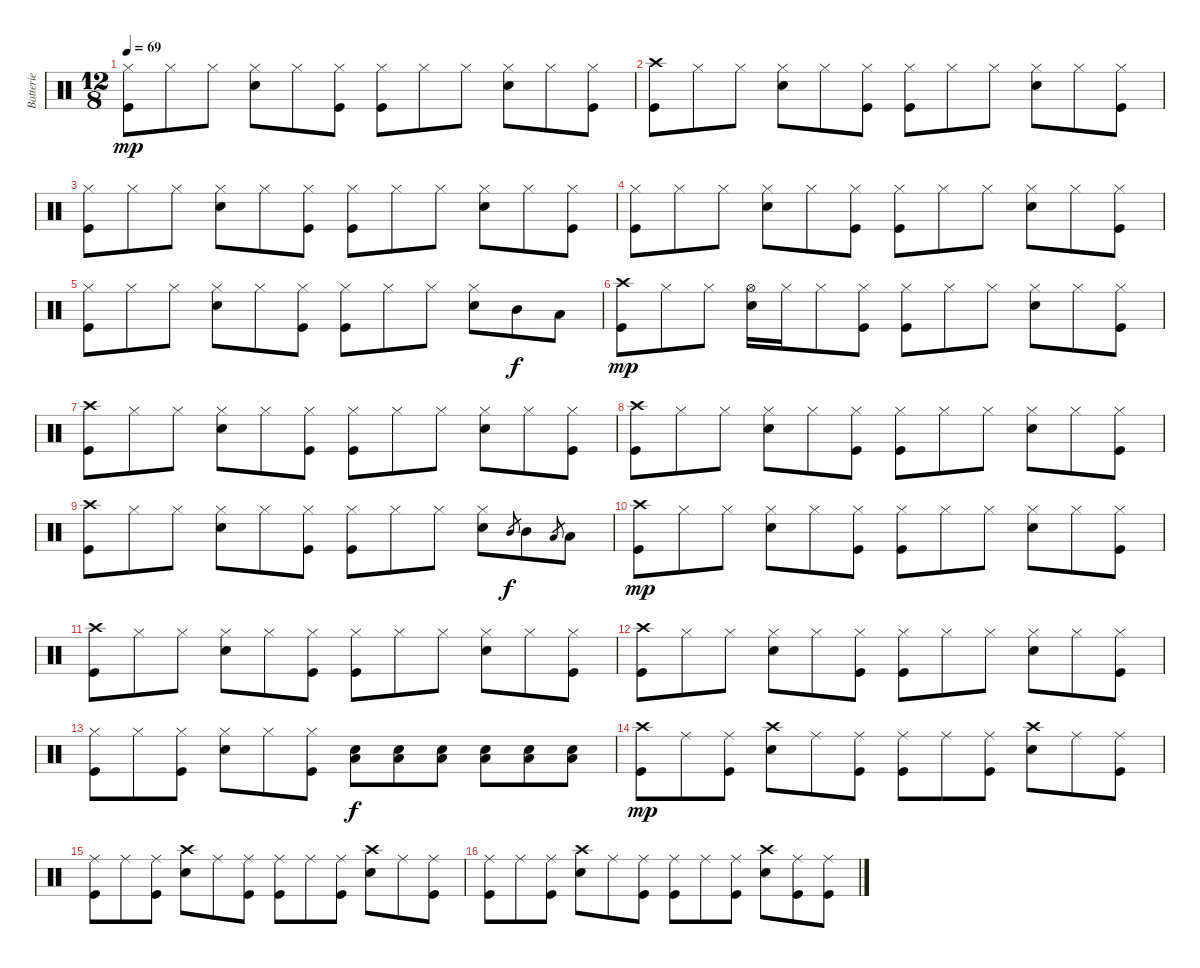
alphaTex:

\track ("Batterie" "Batterie") {instrument percussion}
\staff {score}
\articulation defaults
\ts (12 8)
\tempo 69
\clef neutral
\ks c
("Hi-Hat (closed)" "Kick (hit)").8{dy mp} "Hi-Hat (closed)".8 "Hi-Hat (closed)".8 ("Hi-Hat (closed)" "Snare (hit) 2").8 "Hi-Hat (closed)".8 ("Hi-Hat (closed)" "Kick (hit)").8 ("Hi-Hat (closed)" "Kick (hit)").8 "Hi-Hat (closed)".8 "Hi-Hat (closed)".8 ("Hi-Hat (closed)" "Snare (hit) 2").8 "Hi-Hat (closed)".8 ("Hi-Hat (closed)" "Kick (hit)").8 |
("Crash high (hit)" "Kick (hit)").8 "Hi-Hat (closed)".8 "Hi-Hat (closed)".8 ("Hi-Hat (closed)" "Snare (hit) 2").8 "Hi-Hat (closed)".8 ("Hi-Hat (closed)" "Kick (hit)").8 ("Hi-Hat (closed)" "Kick (hit)").8 "Hi-Hat (closed)".8 "Hi-Hat (closed)".8 ("Hi-Hat (closed)" "Snare (hit) 2").8 "Hi-Hat (closed)".8 ("Hi-Hat (closed)" "Kick (hit)").8 |
("Hi-Hat (closed)" "Kick (hit)").8 "Hi-Hat (closed)".8 "Hi-Hat (closed)".8 ("Hi-Hat (closed)" "Snare (hit) 2").8 "Hi-Hat (closed)".8 ("Hi-Hat (closed)" "Kick (hit)").8 ("Hi-Hat (closed)" "Kick (hit)").8 "Hi-Hat (closed)".8 "Hi-Hat (closed)".8 ("Hi-Hat (closed)" "Snare (hit) 2").8 "Hi-Hat (closed)".8 ("Hi-Hat (closed)" "Kick (hit)").8 |
("Hi-Hat (closed)" "Kick (hit)").8 "Hi-Hat (closed)".8 "Hi-Hat (closed)".8 ("Hi-Hat (closed)" "Snare (hit) 2").8 "Hi-Hat (closed)".8 ("Hi-Hat (closed)" "Kick (hit)").8 ("Hi-Hat (closed)" "Kick (hit)").8 "Hi-Hat (closed)".8 "Hi-Hat (closed)".8 ("Hi-Hat (closed)" "Snare (hit) 2").8 "Hi-Hat (closed)".8 ("Hi-Hat (closed)" "Kick (hit)").8 |
("Hi-Hat (closed)" "Kick (hit)").8 "Hi-Hat (closed)".8 "Hi-Hat (closed)".8 ("Hi-Hat (closed)" "Snare (hit) 2").8 "Hi-Hat (closed)".8 ("Hi-Hat (closed)" "Kick (hit)").8 ("Hi-Hat (closed)" "Kick (hit)").8 "Hi-Hat (closed)".8 "Hi-Hat (closed)".8 ("Hi-Hat (closed)" "Snare (hit) 2").8 "Mid Tom (hit)".8{dy f} "Low Tom (hit)".8 |
("Crash high (hit)" "Kick (hit)").8{dy mp} "Hi-Hat (closed)".8 "Hi-Hat (closed)".8 ("Hi-Hat (open)" "Snare (hit) 2").16 "Hi-Hat (closed)".16 "Hi-Hat (closed)".8 ("Hi-Hat (closed)" "Kick (hit)").8 ("Hi-Hat (closed)" "Kick (hit)").8 "Hi-Hat (closed)".8 "Hi-Hat (closed)".8 ("Hi-Hat (closed)" "Snare (hit) 2").8 "Hi-Hat (closed)".8 ("Hi-Hat (closed)" "Kick (hit)").8 |
("Crash high (hit)" "Kick (hit)").8 "Hi-Hat (closed)".8 "Hi-Hat (closed)".8 ("Hi-Hat (closed)" "Snare (hit) 2").8 "Hi-Hat (closed)".8 ("Hi-Hat (closed)" "Kick (hit)").8 ("Hi-Hat (closed)" "Kick (hit)").8 "Hi-Hat (closed)".8 "Hi-Hat (closed)".8 ("Hi-Hat (closed)" "Snare (hit) 2").8 "Hi-Hat (closed)".8 ("Hi-Hat (closed)" "Kick (hit)").8 |
("Crash high (hit)" "Kick (hit)").8 "Hi-Hat (closed)".8 "Hi-Hat (closed)".8 ("Hi-Hat (closed)" "Snare (hit) 2").8 "Hi-Hat (closed)".8 ("Hi-Hat (closed)" "Kick (hit)").8 ("Hi-Hat (closed)" "Kick (hit)").8 "Hi-Hat (closed)".8 "Hi-Hat (closed)".8 ("Hi-Hat (closed)" "Snare (hit) 2").8 "Hi-Hat (closed)".8 ("Hi-Hat (closed)" "Kick (hit)").8 |
("Crash high (hit)" "Kick (hit)").8 "Hi-Hat (closed)".8 "Hi-Hat (closed)".8 ("Hi-Hat (closed)" "Snare (hit) 2").8 "Hi-Hat (closed)".8 ("Hi-Hat (closed)" "Kick (hit)").8 ("Hi-Hat (closed)" "Kick (hit)").8 "Hi-Hat (closed)".8 "Hi-Hat (closed)".8 ("Hi-Hat (closed)" "Snare (hit) 2").8 "Mid Tom (hit)".8{gr dy f} "Mid Tom (hit)".8 "Low Tom (hit)".8{gr} "Low Tom (hit)".8 |
("Crash high (hit)" "Kick (hit)").8{dy mp} "Hi-Hat (closed)".8 "Hi-Hat (closed)".8 ("Hi-Hat (closed)" "Snare (hit) 2").8 "Hi-Hat (closed)".8 ("Hi-Hat (closed)" "Kick (hit)").8 ("Hi-Hat (closed)" "Kick (hit)").8 "Hi-Hat (closed)".8 "Hi-Hat (closed)".8 ("Hi-Hat (closed)" "Snare (hit) 2").8 "Hi-Hat (closed)".8 ("Hi-Hat (closed)" "Kick (hit)").8 |
("Crash high (hit)" "Kick (hit)").8 "Hi-Hat (closed)".8 "Hi-Hat (closed)".8 ("Hi-Hat (closed)" "Snare (hit) 2").8 "Hi-Hat (closed)".8 ("Hi-Hat (closed)" "Kick (hit)").8 ("Hi-Hat (closed)" "Kick (hit)").8 "Hi-Hat (closed)".8 "Hi-Hat (closed)".8 ("Hi-Hat (closed)" "Snare (hit) 2").8 "Hi-Hat (closed)".8 ("Hi-Hat (closed)" "Kick (hit)").8 |
("Crash high (hit)" "Kick (hit)").8 "Hi-Hat (closed)".8 "Hi-Hat (closed)".8 ("Hi-Hat (closed)" "Snare (hit) 2").8 "Hi-Hat (closed)".8 ("Hi-Hat (closed)" "Kick (hit)").8 ("Hi-Hat (closed)" "Kick (hit)").8 "Hi-Hat (closed)".8 "Hi-Hat (closed)".8 ("Hi-Hat (closed)" "Snare (hit) 2").8 "Hi-Hat (closed)".8 ("Hi-Hat (closed)" "Kick (hit)").8 |
("Hi-Hat (closed)" "Kick (hit)").8 "Hi-Hat (closed)".8 ("Hi-Hat (closed)" "Kick (hit)").8 ("Hi-Hat (closed)" "Snare (hit) 2").8 "Hi-Hat (closed)".8 ("Hi-Hat (closed)" "Kick (hit)").8 ("Snare (hit) 2" "Low Tom (hit)").8{dy f} ("Snare (hit) 2" "Low Tom (hit)").8 ("Snare (hit) 2" "Low Tom (hit)").8 ("Snare (hit) 2" "Low Tom (hit)").8 ("Snare (hit) 2" "Low Tom (hit)").8 ("Snare (hit) 2" "Low Tom (hit)").8 |
("Crash high (hit)" "Kick (hit)").8{dy mp} "Ride (middle)".8 ("Ride (middle)" "Kick (hit)").8 ("Crash high (hit)" "Snare (hit) 2").8 "Ride (middle)".8 ("Ride (middle)" "Kick (hit)").8 ("Ride (middle)" "Kick (hit)").8 "Ride (middle)".8 ("Ride (middle)" "Kick (hit)").8 ("Crash high (hit)" "Snare (hit) 2").8 "Ride (middle)".8 ("Ride (middle)" "Kick (hit)").8 |
("Ride (middle)" "Kick (hit)").8 "Ride (middle)".8 ("Ride (middle)" "Kick (hit)").8 ("Crash high (hit)" "Snare (hit) 2").8 "Ride (middle)".8 ("Ride (middle)" "Kick (hit)").8 ("Ride (middle)" "Kick (hit)").8 "Ride (middle)".8 ("Ride (middle)" "Kick (hit)").8 ("Crash high (hit)" "Snare (hit) 2").8 "Ride (middle)".8 ("Ride (middle)" "Kick (hit)").8 |
("Ride (middle)" "Kick (hit)").8 "Ride (middle)".8 ("Ride (middle)" "Kick (hit)").8 ("Crash high (hit)" "Snare (hit) 2").8 "Ride (middle)".8 ("Ride (middle)" "Kick (hit)").8 ("Ride (middle)" "Kick (hit)").8 "Ride (middle)".8 ("Ride (middle)" "Kick (hit)").8 ("Crash high (hit)" "Snare (hit) 2").8 ("Ride (middle)" "Kick (hit)").8 ("Ride (middle)" "Kick (hit)").8
